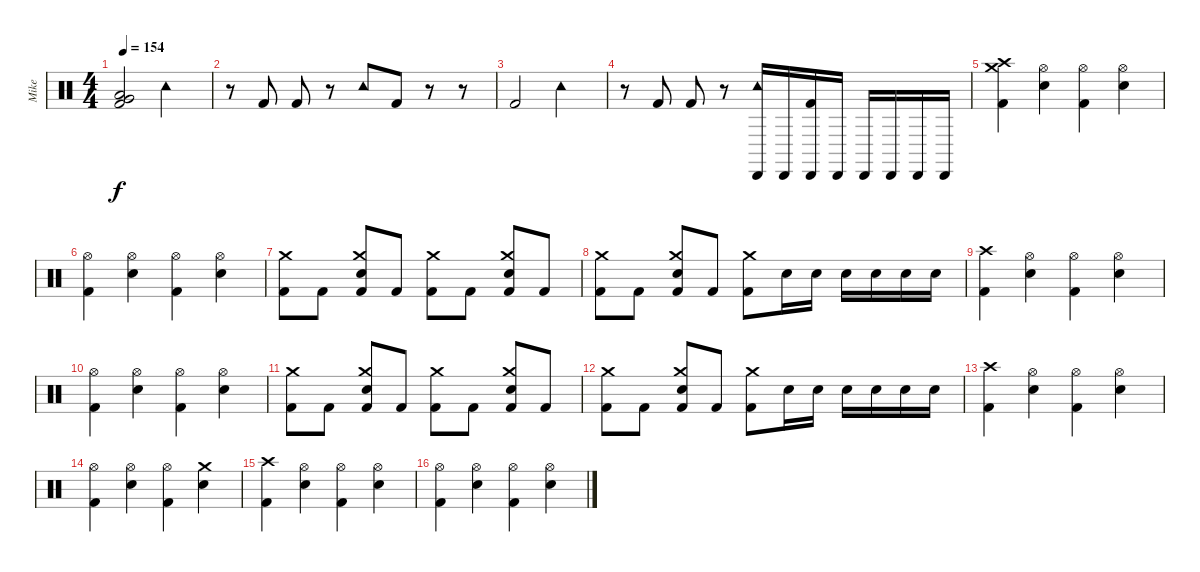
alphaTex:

\track ("Mike " "Mike ") {instrument percussion}
\staff {score}
\articulation defaults
\ts (4 4)
\tempo 154
\clef neutral
\ks c
("Very Low Tom (hit)" "Low Tom (hit)" "Kick (hit) 2").2{dy f} "Tambourine (hit)".2 |
r.8 "Kick (hit) 2".8 "Kick (hit) 2".8 r.8 "Tambourine (hit)".8 "Kick (hit) 2".8 r.8 r.8 |
"Kick (hit) 2".2 "Tambourine (hit)".2 |
r.8 "Kick (hit) 2".8 "Kick (hit) 2".8 r.8 ("Cabasa (hit)" "Tambourine (hit)").16 "Cabasa (hit)".16 ("Cabasa (hit)" "Kick (hit) 2").16 "Cabasa (hit)".16 "Cabasa (hit)".16 "Cabasa (hit)".16 "Cabasa (hit)".16 "Cabasa (hit)".16 |
("Crash high (hit)" "Crash medium (hit)" "Kick (hit) 2").4 ("Hi-Hat (open)" "Electric Snare (hit)").4 ("Hi-Hat (open)" "Kick (hit) 2").4 ("Hi-Hat (open)" "Electric Snare (hit)").4 |
("Hi-Hat (open)" "Kick (hit) 2").4 ("Hi-Hat (open)" "Electric Snare (hit)").4 ("Hi-Hat (open)" "Kick (hit) 2").4 ("Hi-Hat (open)" "Electric Snare (hit)").4 |
("Crash medium (hit)" "Kick (hit) 2").8 "Kick (hit) 2".8 ("Crash medium (hit)" "Electric Snare (hit)" "Kick (hit) 2").8 "Kick (hit) 2".8 ("Crash medium (hit)" "Kick (hit) 2").8 "Kick (hit) 2".8 ("Crash medium (hit)" "Electric Snare (hit)" "Kick (hit) 2").8 "Kick (hit) 2".8 |
("Crash medium (hit)" "Kick (hit) 2").8 "Kick (hit) 2".8 ("Crash medium (hit)" "Electric Snare (hit)" "Kick (hit) 2").8 "Kick (hit) 2".8 ("Crash medium (hit)" "Kick (hit) 2").8 "Electric Snare (hit)".16 "Electric Snare (hit)".16 "Electric Snare (hit)".16 "Electric Snare (hit)".16 "Electric Snare (hit)".16 "Electric Snare (hit)".16 |
("Crash high (hit)" "Kick (hit) 2").4 ("Hi-Hat (open)" "Electric Snare (hit)").4 ("Hi-Hat (open)" "Kick (hit) 2").4 ("Hi-Hat (open)" "Electric Snare (hit)").4 |
("Hi-Hat (open)" "Kick (hit) 2").4 ("Hi-Hat (open)" "Electric Snare (hit)").4 ("Hi-Hat (open)" "Kick (hit) 2").4 ("Hi-Hat (open)" "Electric Snare (hit)").4 |
("Crash medium (hit)" "Kick (hit) 2").8 "Kick (hit) 2".8 ("Crash medium (hit)" "Electric Snare (hit)" "Kick (hit) 2").8 "Kick (hit) 2".8 ("Crash medium (hit)" "Kick (hit) 2").8 "Kick (hit) 2".8 ("Crash medium (hit)" "Electric Snare (hit)" "Kick (hit) 2").8 "Kick (hit) 2".8 |
("Crash medium (hit)" "Kick (hit) 2").8 "Kick (hit) 2".8 ("Crash medium (hit)" "Electric Snare (hit)" "Kick (hit) 2").8 "Kick (hit) 2".8 ("Crash medium (hit)" "Kick (hit) 2").8 "Electric Snare (hit)".16 "Electric Snare (hit)".16 "Electric Snare (hit)".16 "Electric Snare (hit)".16 "Electric Snare (hit)".16 "Electric Snare (hit)".16 |
("Crash high (hit)" "Kick (hit) 2").4 ("Hi-Hat (open)" "Electric Snare (hit)").4 ("Hi-Hat (open)" "Kick (hit) 2").4 ("Hi-Hat (open)" "Electric Snare (hit)").4 |
("Hi-Hat (open)" "Kick (hit) 2").4 ("Hi-Hat (open)" "Electric Snare (hit)").4 ("Hi-Hat (open)" "Kick (hit) 2").4 ("Crash medium (hit)" "Electric Snare (hit)").4 |
("Crash high (hit)" "Kick (hit) 2").4 ("Hi-Hat (open)" "Electric Snare (hit)").4 ("Hi-Hat (open)" "Kick (hit) 2").4 ("Hi-Hat (open)" "Electric Snare (hit)").4 |
("Hi-Hat (open)" "Kick (hit) 2").4 ("Hi-Hat (open)" "Electric Snare (hit)").4 ("Hi-Hat (open)" "Kick (hit) 2").4 ("Hi-Hat (open)" "Electric Snare (hit)").4
